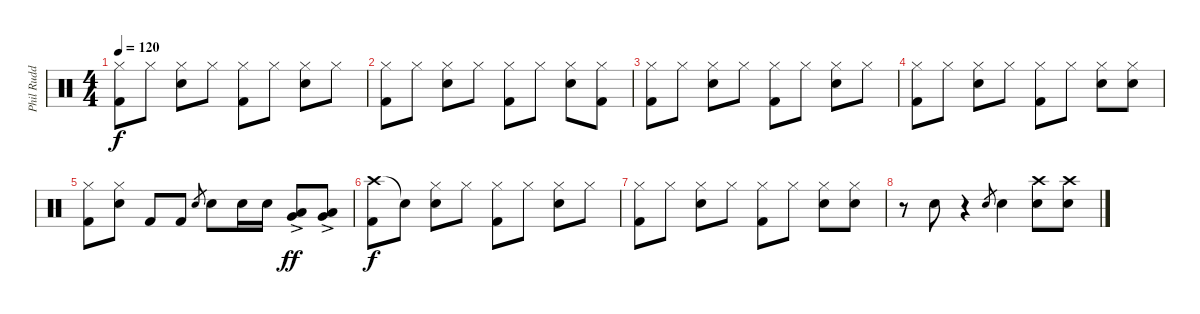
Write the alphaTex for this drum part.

\track ("Phil Rudd" "Phil Rudd") {instrument percussion}
\staff {score}
\articulation defaults
\ts (4 4)
\tempo 120
\clef neutral
\ks c
("Hi-Hat (closed)" "Kick (hit) 2").8{dy f} "Hi-Hat (closed)".8 ("Hi-Hat (closed)" "Snare (hit) 2").8 "Hi-Hat (closed)".8 ("Hi-Hat (closed)" "Kick (hit) 2").8 "Hi-Hat (closed)".8 ("Hi-Hat (closed)" "Snare (hit) 2").8 "Hi-Hat (closed)".8 |
("Hi-Hat (closed)" "Kick (hit) 2").8 "Hi-Hat (closed)".8 ("Hi-Hat (closed)" "Snare (hit) 2").8 "Hi-Hat (closed)".8 ("Hi-Hat (closed)" "Kick (hit) 2").8 "Hi-Hat (closed)".8 ("Hi-Hat (closed)" "Snare (hit) 2").8 ("Hi-Hat (closed)" "Kick (hit) 2").8 |
("Hi-Hat (closed)" "Kick (hit) 2").8 "Hi-Hat (closed)".8 ("Hi-Hat (closed)" "Snare (hit) 2").8 "Hi-Hat (closed)".8 ("Hi-Hat (closed)" "Kick (hit) 2").8 "Hi-Hat (closed)".8 ("Hi-Hat (closed)" "Snare (hit) 2").8 "Hi-Hat (closed)".8 |
("Hi-Hat (closed)" "Kick (hit) 2").8 "Hi-Hat (closed)".8 ("Hi-Hat (closed)" "Snare (hit) 2").8 "Hi-Hat (closed)".8 ("Hi-Hat (closed)" "Kick (hit) 2").8 "Hi-Hat (closed)".8 ("Hi-Hat (closed)" "Snare (hit) 2").8 ("Hi-Hat (closed)" "Snare (hit) 2").8 |
("Hi-Hat (closed)" "Kick (hit) 2").8 ("Hi-Hat (closed)" "Snare (hit) 2").8 "Kick (hit) 2".8 "Kick (hit) 2".8 "Snare (hit) 2".8{gr} "Snare (hit) 2".8 "Snare (hit) 2".16 "Snare (hit) 2".16 ("Low Tom (hit)"{ac} "Very Low Tom (hit)").8{dy ff} ("Low Tom (hit)"{ac} "Very Low Tom (hit)").8 |
("Crash high (hit)" "Kick (hit) 2").8{dy f} "Snare (hit)"{t}.8 ("Hi-Hat (closed)" "Snare (hit) 2").8 "Hi-Hat (closed)".8 ("Hi-Hat (closed)" "Kick (hit) 2").8 "Hi-Hat (closed)".8 ("Hi-Hat (closed)" "Snare (hit) 2").8 "Hi-Hat (closed)".8 |
("Hi-Hat (closed)" "Kick (hit) 2").8 "Hi-Hat (closed)".8 ("Hi-Hat (closed)" "Snare (hit) 2").8 "Hi-Hat (closed)".8 ("Hi-Hat (closed)" "Kick (hit) 2").8 "Hi-Hat (closed)".8 ("Hi-Hat (closed)" "Snare (hit) 2").8 ("Hi-Hat (closed)" "Snare (hit) 2").8 |
r.8 "Snare (hit) 2".8 r.4 "Snare (hit) 2".8{gr} "Snare (hit) 2".4 ("Crash high (hit)" "Snare (hit) 2").8 ("Crash high (hit)" "Snare (hit) 2").8
